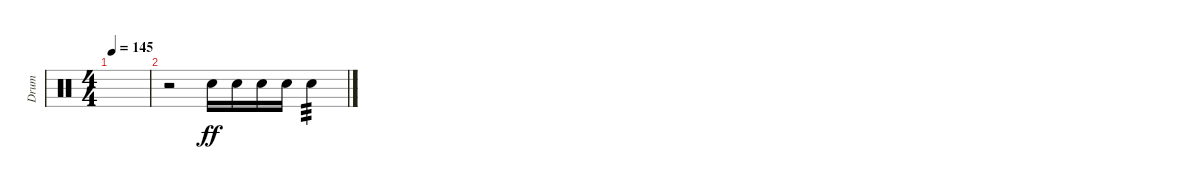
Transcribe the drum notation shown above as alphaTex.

\track ("Drum" "Drum") {instrument percussion bank 4}
\staff {score}
\articulation defaults
\ts (4 4)
\tempo 145
\clef neutral
\ks c
|
r.2 "Electric Snare (hit)".16{dy ff} "Electric Snare (hit)".16 "Electric Snare (hit)".16 "Electric Snare (hit)".16 "Electric Snare (hit)".4{tp 3}
